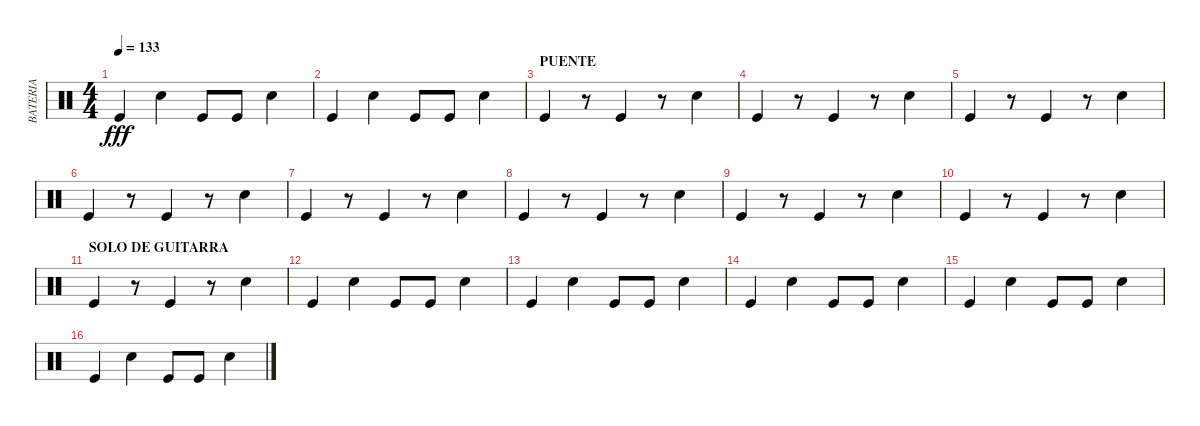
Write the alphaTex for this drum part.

\track ("BATERIA" "BATERIA") {instrument percussion}
\staff {score}
\articulation defaults
\ts (4 4)
\tempo 133
\clef neutral
\ks c "Kick (hit)".4{dy fff} "Electric Snare (hit)".4 "Kick (hit)".8 "Kick (hit)".8 "Electric Snare (hit)".4
|
"Kick (hit)".4 "Electric Snare (hit)".4 "Kick (hit)".8 "Kick (hit)".8 "Electric Snare (hit)".4 |
\section ("" "PUENTE")
"Kick (hit)".4 r.8 "Kick (hit)".4 r.8 "Electric Snare (hit)".4 |
"Kick (hit)".4 r.8 "Kick (hit)".4 r.8 "Electric Snare (hit)".4 |
"Kick (hit)".4 r.8 "Kick (hit)".4 r.8 "Electric Snare (hit)".4 |
"Kick (hit)".4 r.8 "Kick (hit)".4 r.8 "Electric Snare (hit)".4 |
"Kick (hit)".4 r.8 "Kick (hit)".4 r.8 "Electric Snare (hit)".4 |
"Kick (hit)".4 r.8 "Kick (hit)".4 r.8 "Electric Snare (hit)".4 |
"Kick (hit)".4 r.8 "Kick (hit)".4 r.8 "Electric Snare (hit)".4 |
"Kick (hit)".4 r.8 "Kick (hit)".4 r.8 "Electric Snare (hit)".4 |
\section ("" "SOLO DE GUITARRA")
"Kick (hit)".4 r.8 "Kick (hit)".4 r.8 "Electric Snare (hit)".4 |
"Kick (hit)".4 "Electric Snare (hit)".4 "Kick (hit)".8 "Kick (hit)".8 "Electric Snare (hit)".4 |
"Kick (hit)".4 "Electric Snare (hit)".4 "Kick (hit)".8 "Kick (hit)".8 "Electric Snare (hit)".4 |
"Kick (hit)".4 "Electric Snare (hit)".4 "Kick (hit)".8 "Kick (hit)".8 "Electric Snare (hit)".4 |
"Kick (hit)".4 "Electric Snare (hit)".4 "Kick (hit)".8 "Kick (hit)".8 "Electric Snare (hit)".4 |
"Kick (hit)".4 "Electric Snare (hit)".4 "Kick (hit)".8 "Kick (hit)".8 "Electric Snare (hit)".4
